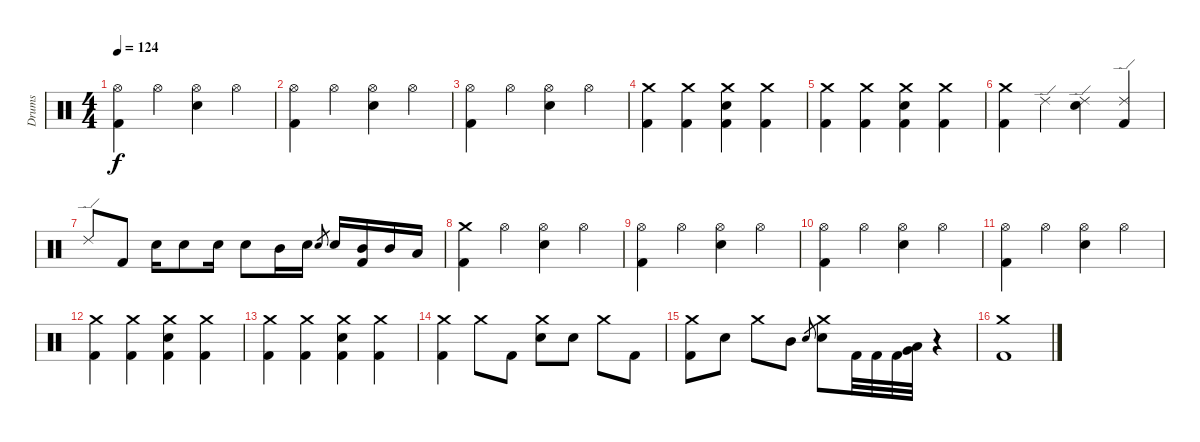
\track ("Drums" "Drums") {instrument percussion}
\staff {score}
\articulation defaults
\ts (4 4)
\tempo 124
\clef neutral
\ks c
("Hi-Hat (open)" "Kick (hit) 2").4{dy f} "Hi-Hat (open)".4 ("Hi-Hat (open)" "Electric Snare (hit)").4 "Hi-Hat (open)".4 |
("Hi-Hat (open)" "Kick (hit) 2").4 "Hi-Hat (open)".4 ("Hi-Hat (open)" "Electric Snare (hit)").4 "Hi-Hat (open)".4 |
("Hi-Hat (open)" "Kick (hit) 2").4 "Hi-Hat (open)".4 ("Hi-Hat (open)" "Electric Snare (hit)").4 "Hi-Hat (open)".4 |
("Crash medium (hit)" "Kick (hit) 2").4 ("Crash medium (hit)" "Kick (hit) 2").4 ("Crash medium (hit)" "Electric Snare (hit)" "Kick (hit) 2").4 ("Crash medium (hit)" "Kick (hit) 2").4 |
("Crash medium (hit)" "Kick (hit) 2").4 ("Crash medium (hit)" "Kick (hit) 2").4 ("Crash medium (hit)" "Electric Snare (hit)" "Kick (hit) 2").4 ("Crash medium (hit)" "Kick (hit) 2").4 |
("Crash medium (hit)" "Kick (hit) 2").4 "Ride (edge) 2".4 ("Ride (edge) 2" "Electric Snare (hit)").4 ("Ride (edge) 2" "Kick (hit) 2").4 |
"Ride (edge) 2".8 "Kick (hit) 2".8 "Electric Snare (hit)".16 "Electric Snare (hit)".8 "Electric Snare (hit)".16 "Electric Snare (hit)".8 "Mid Tom (hit)".16 "Electric Snare (hit)".16 "Electric Snare (hit)".8{gr} "Electric Snare (hit)".16 ("Mid Tom (hit)" "Kick (hit) 2").16 "Mid Tom (hit)".16 "Low Tom (hit)".16 |
("Crash medium (hit)" "Kick (hit) 2").4 "Hi-Hat (open)".4 ("Hi-Hat (open)" "Electric Snare (hit)").4 "Hi-Hat (open)".4 |
("Hi-Hat (open)" "Kick (hit) 2").4 "Hi-Hat (open)".4 ("Hi-Hat (open)" "Electric Snare (hit)").4 "Hi-Hat (open)".4 |
("Hi-Hat (open)" "Kick (hit) 2").4 "Hi-Hat (open)".4 ("Hi-Hat (open)" "Electric Snare (hit)").4 "Hi-Hat (open)".4 |
("Hi-Hat (open)" "Kick (hit) 2").4 "Hi-Hat (open)".4 ("Hi-Hat (open)" "Electric Snare (hit)").4 "Hi-Hat (open)".4 |
("Crash medium (hit)" "Kick (hit) 2").4 ("Crash medium (hit)" "Kick (hit) 2").4 ("Crash medium (hit)" "Electric Snare (hit)" "Kick (hit) 2").4 ("Crash medium (hit)" "Kick (hit) 2").4 |
("Crash medium (hit)" "Kick (hit) 2").4 ("Crash medium (hit)" "Kick (hit) 2").4 ("Crash medium (hit)" "Electric Snare (hit)" "Kick (hit) 2").4 ("Crash medium (hit)" "Kick (hit) 2").4 |
("Crash medium (hit)" "Kick (hit) 2").4 "Crash medium (hit)".8 "Kick (hit) 2".8 ("Crash medium (hit)" "Electric Snare (hit)").8 "Electric Snare (hit)".8 "Crash medium (hit)".8 "Kick (hit) 2".8 |
("Crash medium (hit)" "Kick (hit) 2").8 "Electric Snare (hit)".8 "Crash medium (hit)".8 "Mid Tom (hit)".8 "Electric Snare (hit)".8{gr} ("Crash medium (hit)" "Electric Snare (hit)").8 "Kick (hit) 2".32 "Kick (hit) 2".32 "Kick (hit) 2".32 ("Very Low Tom (hit)" "Low Floor Tom (hit)").32 r.4 |
("Crash medium (hit)" "Kick (hit) 2").1
